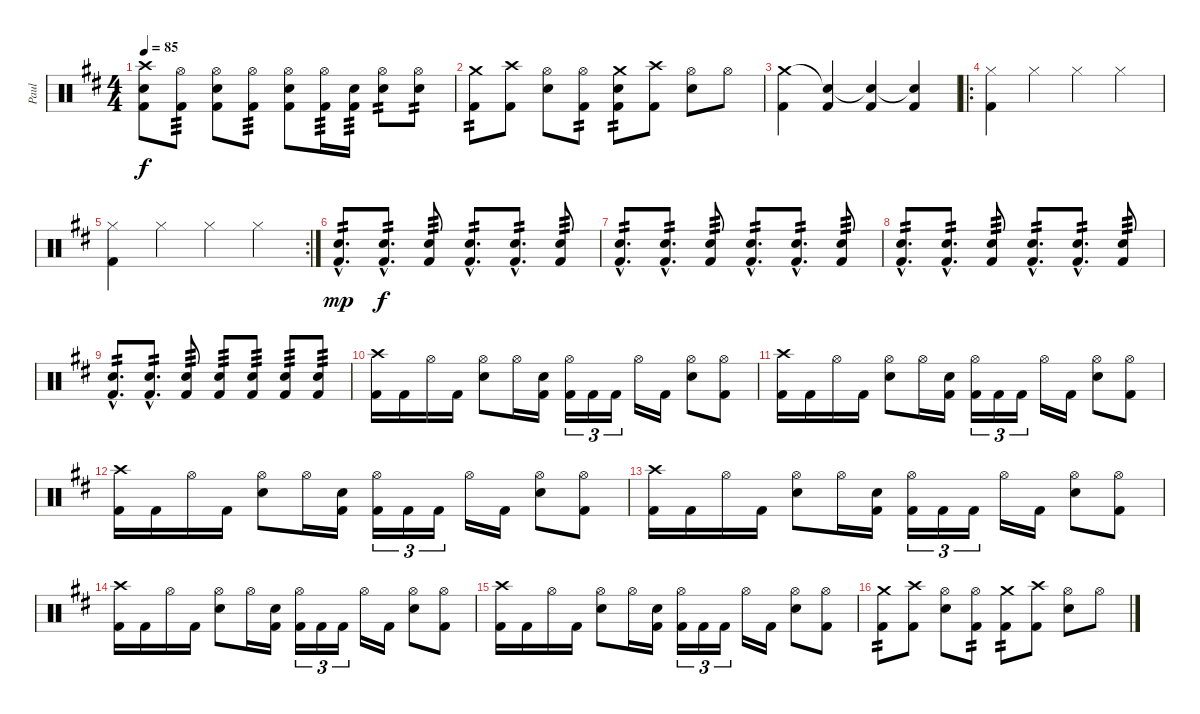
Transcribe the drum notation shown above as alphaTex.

\track ("Paul" "Paul") {instrument percussion}
\staff {score}
\articulation defaults
\ts (4 4)
\tempo 85
\clef neutral
\ks bminor
("Crash high (hit)" "Snare (hit) 2" "Kick (hit) 2").8{dy f} ("Hi-Hat (open)" "Kick (hit) 2").8{tp 3} ("Hi-Hat (open)" "Snare (hit) 2" "Kick (hit) 2").8 ("Hi-Hat (open)" "Kick (hit) 2").8{tp 3} ("Hi-Hat (open)" "Snare (hit) 2" "Kick (hit) 2").8 ("Hi-Hat (open)" "Kick (hit) 2").16{tp 3} ("Snare (hit) 2" "Kick (hit) 2").16{tp 3} ("Hi-Hat (open)" "Snare (hit) 2").8{tp 2} ("Hi-Hat (open)" "Snare (hit) 2").8{tp 2} |
("Crash medium (hit)" "Kick (hit) 2").8{tp 2} ("Crash high (hit)" "Kick (hit) 2").8 ("Hi-Hat (open)" "Snare (hit) 2").8 ("Hi-Hat (open)" "Kick (hit) 2").8{tp 2} ("Crash medium (hit)" "Snare (hit) 2" "Kick (hit) 2").8{tp 2} ("Crash high (hit)" "Kick (hit) 2").8 ("Hi-Hat (open)" "Snare (hit) 2").8 "Hi-Hat (open)".8 |
("Crash medium (hit)" "Kick (hit) 2").4 ("Snare (hit)"{t} "Kick (hit) 2").4 ("Snare (hit)"{t} "Kick (hit) 2").4 ("Snare (hit)"{t} "Kick (hit) 2").4 |
\ro
("Hi-Hat (closed)" "Kick (hit) 2").4{volume 8} "Hi-Hat (closed)".4 "Hi-Hat (closed)".4 "Hi-Hat (closed)".4 |
\rc 2
("Hi-Hat (closed)" "Kick (hit) 2").4 "Hi-Hat (closed)".4 "Hi-Hat (closed)".4 "Hi-Hat (closed)".4 |
("Snare (hit) 2"{hac} "Kick (hit) 2"{hac}).8{d tp 2 dy mp volume 13} ("Snare (hit) 2"{hac} "Kick (hit) 2"{hac}).8{d tp 2 dy f} ("Snare (hit) 2" "Kick (hit) 2").8{tp 3} ("Snare (hit) 2"{hac} "Kick (hit) 2"{hac}).8{d tp 2} ("Snare (hit) 2"{hac} "Kick (hit) 2"{hac}).8{d tp 2} ("Snare (hit) 2" "Kick (hit) 2").8{tp 3} |
("Snare (hit) 2"{hac} "Kick (hit) 2"{hac}).8{d tp 2} ("Snare (hit) 2"{hac} "Kick (hit) 2"{hac}).8{d tp 2} ("Snare (hit) 2" "Kick (hit) 2").8{tp 3} ("Snare (hit) 2"{hac} "Kick (hit) 2"{hac}).8{d tp 2} ("Snare (hit) 2"{hac} "Kick (hit) 2"{hac}).8{d tp 2} ("Snare (hit) 2" "Kick (hit) 2").8{tp 3} |
("Snare (hit) 2"{hac} "Kick (hit) 2"{hac}).8{d tp 2} ("Snare (hit) 2"{hac} "Kick (hit) 2"{hac}).8{d tp 2} ("Snare (hit) 2" "Kick (hit) 2").8{tp 3} ("Snare (hit) 2"{hac} "Kick (hit) 2"{hac}).8{d tp 2} ("Snare (hit) 2"{hac} "Kick (hit) 2"{hac}).8{d tp 2} ("Snare (hit) 2" "Kick (hit) 2").8{tp 3} |
("Snare (hit) 2"{hac} "Kick (hit) 2"{hac}).8{d tp 2} ("Snare (hit) 2"{hac} "Kick (hit) 2"{hac}).8{d tp 2} ("Snare (hit) 2" "Kick (hit) 2").8{tp 3} ("Snare (hit) 2" "Kick (hit) 2").8{tp 3} ("Snare (hit) 2" "Kick (hit) 2").8{tp 3} ("Snare (hit) 2" "Kick (hit) 2").8{tp 3} ("Snare (hit) 2" "Kick (hit) 2").8{tp 3} |
("Crash high (hit)" "Kick (hit) 2").16 "Kick (hit) 2".16 "Hi-Hat (open)".16 "Kick (hit) 2".16 ("Hi-Hat (open)" "Snare (hit) 2").8 "Hi-Hat (open)".16 ("Snare (hit) 2" "Kick (hit) 2").16 ("Hi-Hat (open)" "Kick (hit) 2").16{tu (3 2)} "Kick (hit) 2".16{tu (3 2)} "Kick (hit) 2".16{tu (3 2)} "Hi-Hat (open)".16 "Kick (hit) 2".16 ("Hi-Hat (open)" "Snare (hit) 2").8 ("Hi-Hat (open)" "Kick (hit) 2").8 |
("Crash high (hit)" "Kick (hit) 2").16 "Kick (hit) 2".16 "Hi-Hat (open)".16 "Kick (hit) 2".16 ("Hi-Hat (open)" "Snare (hit) 2").8 "Hi-Hat (open)".16 ("Snare (hit) 2" "Kick (hit) 2").16 ("Hi-Hat (open)" "Kick (hit) 2").16{tu (3 2)} "Kick (hit) 2".16{tu (3 2)} "Kick (hit) 2".16{tu (3 2)} "Hi-Hat (open)".16 "Kick (hit) 2".16 ("Hi-Hat (open)" "Snare (hit) 2").8 ("Hi-Hat (open)" "Kick (hit) 2").8 |
("Crash high (hit)" "Kick (hit) 2").16 "Kick (hit) 2".16 "Hi-Hat (open)".16 "Kick (hit) 2".16 ("Hi-Hat (open)" "Snare (hit) 2").8 "Hi-Hat (open)".16 ("Snare (hit) 2" "Kick (hit) 2").16 ("Hi-Hat (open)" "Kick (hit) 2").16{tu (3 2)} "Kick (hit) 2".16{tu (3 2)} "Kick (hit) 2".16{tu (3 2)} "Hi-Hat (open)".16 "Kick (hit) 2".16 ("Hi-Hat (open)" "Snare (hit) 2").8 ("Hi-Hat (open)" "Kick (hit) 2").8 |
("Crash high (hit)" "Kick (hit) 2").16 "Kick (hit) 2".16 "Hi-Hat (open)".16 "Kick (hit) 2".16 ("Hi-Hat (open)" "Snare (hit) 2").8 "Hi-Hat (open)".16 ("Snare (hit) 2" "Kick (hit) 2").16 ("Hi-Hat (open)" "Kick (hit) 2").16{tu (3 2)} "Kick (hit) 2".16{tu (3 2)} "Kick (hit) 2".16{tu (3 2)} "Hi-Hat (open)".16 "Kick (hit) 2".16 ("Hi-Hat (open)" "Snare (hit) 2").8 ("Hi-Hat (open)" "Kick (hit) 2").8 |
("Crash high (hit)" "Kick (hit) 2").16 "Kick (hit) 2".16 "Hi-Hat (open)".16 "Kick (hit) 2".16 ("Hi-Hat (open)" "Snare (hit) 2").8 "Hi-Hat (open)".16 ("Snare (hit) 2" "Kick (hit) 2").16 ("Hi-Hat (open)" "Kick (hit) 2").16{tu (3 2)} "Kick (hit) 2".16{tu (3 2)} "Kick (hit) 2".16{tu (3 2)} "Hi-Hat (open)".16 "Kick (hit) 2".16 ("Hi-Hat (open)" "Snare (hit) 2").8 ("Hi-Hat (open)" "Kick (hit) 2").8 |
("Crash high (hit)" "Kick (hit) 2").16 "Kick (hit) 2".16 "Hi-Hat (open)".16 "Kick (hit) 2".16 ("Hi-Hat (open)" "Snare (hit) 2").8 "Hi-Hat (open)".16 ("Snare (hit) 2" "Kick (hit) 2").16 ("Hi-Hat (open)" "Kick (hit) 2").16{tu (3 2)} "Kick (hit) 2".16{tu (3 2)} "Kick (hit) 2".16{tu (3 2)} "Hi-Hat (open)".16 "Kick (hit) 2".16 ("Hi-Hat (open)" "Snare (hit) 2").8 ("Hi-Hat (open)" "Kick (hit) 2").8 |
("Crash medium (hit)" "Kick (hit) 2").8{tp 2} ("Crash high (hit)" "Kick (hit) 2").8 ("Hi-Hat (open)" "Snare (hit) 2").8 ("Hi-Hat (open)" "Kick (hit) 2").8{tp 2} ("Crash medium (hit)" "Kick (hit) 2").8{tp 2} ("Crash high (hit)" "Kick (hit) 2").8 ("Hi-Hat (open)" "Snare (hit) 2").8 "Hi-Hat (open)".8
